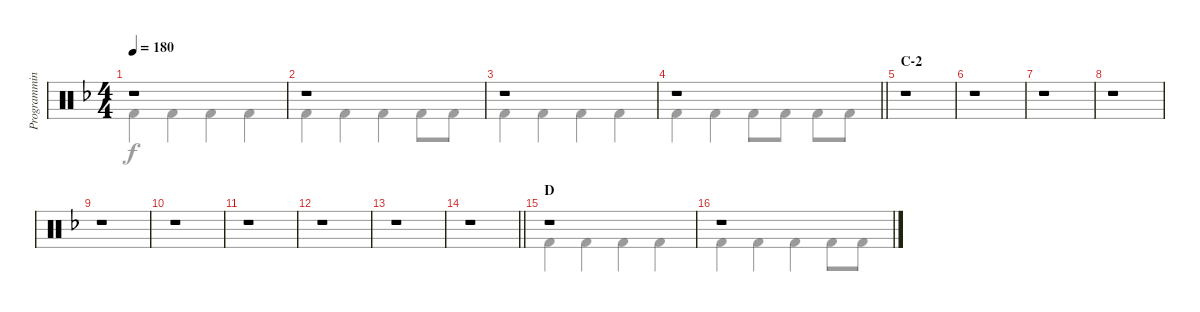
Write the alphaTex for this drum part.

\track ("Programming" "Programmin") {instrument percussion}
\staff {score}
\articulation defaults
\voice
\ts (4 4)
\tempo 180
\clef neutral
\ks f
r.1{dy mp} |
r.1 |
r.1 |
\barLineRight lightlight
r.1 |
\section ("" "C-2")
r.1 |
r.1 |
r.1 |
r.1 |
r.1 |
r.1 |
r.1 |
r.1 |
r.1 |
\barLineRight lightlight
r.1 |
\section ("" "D")
r.1 |
r.1
\voice
\clef neutral
\ottava regular
\simile none
\ks f "Kick (hit) 2".4{dy f} "Kick (hit) 2".4 "Kick (hit) 2".4 "Kick (hit) 2".4
|
"Kick (hit) 2".4 "Kick (hit) 2".4 "Kick (hit) 2".4 "Kick (hit) 2".8 "Kick (hit) 2".8 |
"Kick (hit) 2".4 "Kick (hit) 2".4 "Kick (hit) 2".4 "Kick (hit) 2".4 |
\barLineRight lightlight "Kick (hit) 2".4 "Kick (hit) 2".4 "Kick (hit) 2".8 "Kick (hit) 2".8 "Kick (hit) 2".8 "Kick (hit) 2".8
|
r.1 |
r.1 |
r.1 |
r.1 |
r.1 |
r.1 |
r.1 |
r.1 |
r.1 |
\barLineRight lightlight
r.1 |
"Kick (hit) 2".4 "Kick (hit) 2".4 "Kick (hit) 2".4 "Kick (hit) 2".4 |
"Kick (hit) 2".4 "Kick (hit) 2".4 "Kick (hit) 2".4 "Kick (hit) 2".8 "Kick (hit) 2".8
